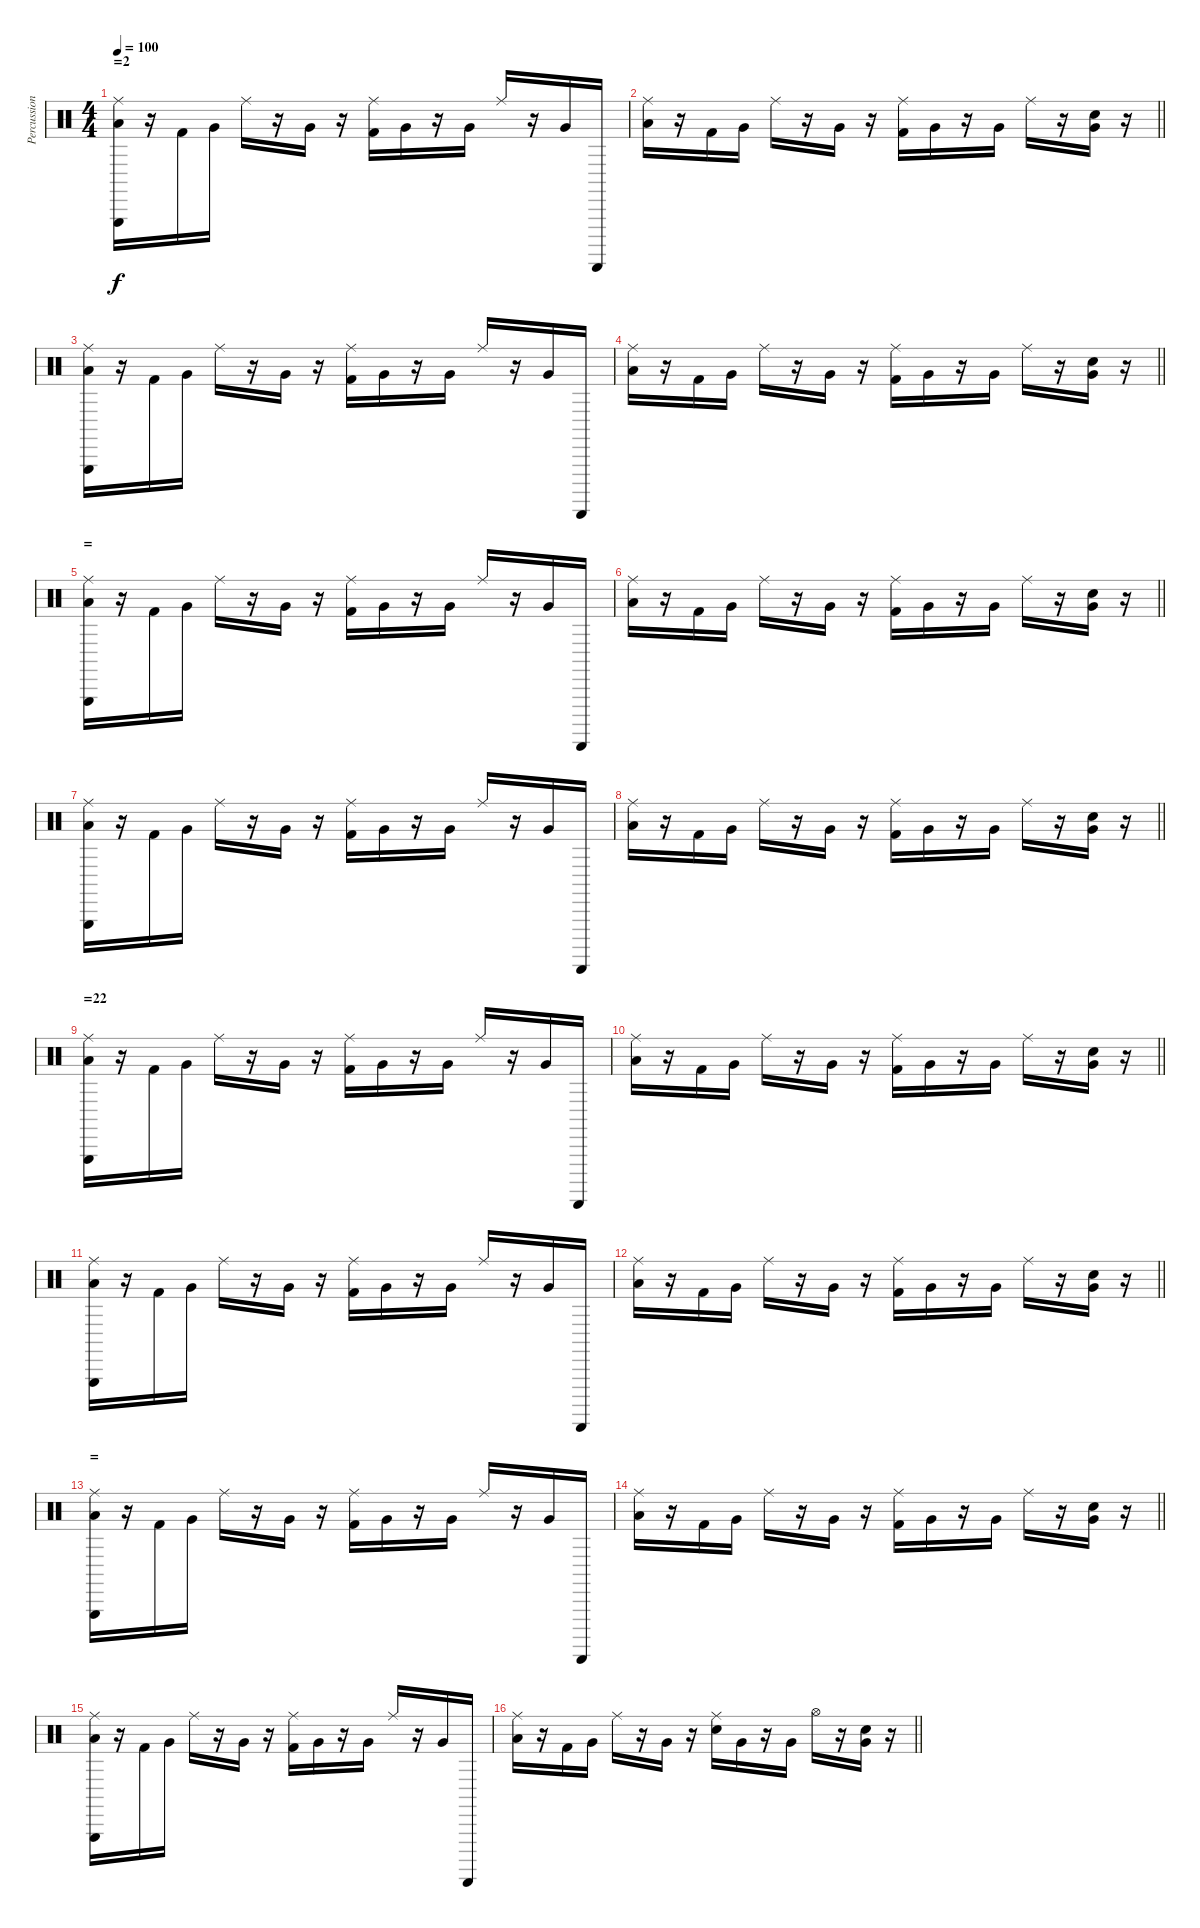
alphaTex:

\track ("Percussion" "Percussion") {instrument percussion}
\staff {score}
\articulation defaults
\ts (4 4)
\section ("" "=2")
\tempo 100
\clef neutral
\ks c
("Low Floor Tom (hit)" "Triangle (hit)" "Ride (middle)").16{dy f} r.16 "Kick (hit) 2".16 "Very Low Tom (hit)".16 "Ride (middle)".16 r.16 "Very Low Tom (hit)".16 r.16 ("Kick (hit) 2" "Ride (middle)").16 "Very Low Tom (hit)".16 r.16 "Very Low Tom (hit)".16 "Ride (middle)".16 r.16 "Very Low Tom (hit)".16 "Guiro (scrap-return)".16 |
\barLineRight lightlight
("Low Floor Tom (hit)" "Ride (middle)").16 r.16 "Kick (hit) 2".16 "Very Low Tom (hit)".16 "Ride (middle)".16 r.16 "Very Low Tom (hit)".16 r.16 ("Kick (hit) 2" "Ride (middle)").16 "Very Low Tom (hit)".16 r.16 "Very Low Tom (hit)".16 "Ride (middle)".16 r.16 ("Very Low Tom (hit)" "Electric Snare (hit)").16 r.16 |
("Low Floor Tom (hit)" "Triangle (hit)" "Ride (middle)").16 r.16 "Kick (hit) 2".16 "Very Low Tom (hit)".16 "Ride (middle)".16 r.16 "Very Low Tom (hit)".16 r.16 ("Kick (hit) 2" "Ride (middle)").16 "Very Low Tom (hit)".16 r.16 "Very Low Tom (hit)".16 "Ride (middle)".16 r.16 "Very Low Tom (hit)".16 "Guiro (scrap-return)".16 |
\barLineRight lightlight
("Low Floor Tom (hit)" "Ride (middle)").16 r.16 "Kick (hit) 2".16 "Very Low Tom (hit)".16 "Ride (middle)".16 r.16 "Very Low Tom (hit)".16 r.16 ("Kick (hit) 2" "Ride (middle)").16 "Very Low Tom (hit)".16 r.16 "Very Low Tom (hit)".16 "Ride (middle)".16 r.16 ("Very Low Tom (hit)" "Electric Snare (hit)").16 r.16 |
\section ("" "=")
("Low Floor Tom (hit)" "Triangle (hit)" "Ride (middle)").16 r.16 "Kick (hit) 2".16 "Very Low Tom (hit)".16 "Ride (middle)".16 r.16 "Very Low Tom (hit)".16 r.16 ("Kick (hit) 2" "Ride (middle)").16 "Very Low Tom (hit)".16 r.16 "Very Low Tom (hit)".16 "Ride (middle)".16 r.16 "Very Low Tom (hit)".16 "Guiro (scrap-return)".16 |
\barLineRight lightlight
("Low Floor Tom (hit)" "Ride (middle)").16 r.16 "Kick (hit) 2".16 "Very Low Tom (hit)".16 "Ride (middle)".16 r.16 "Very Low Tom (hit)".16 r.16 ("Kick (hit) 2" "Ride (middle)").16 "Very Low Tom (hit)".16 r.16 "Very Low Tom (hit)".16 "Ride (middle)".16 r.16 ("Very Low Tom (hit)" "Electric Snare (hit)").16 r.16 |
("Low Floor Tom (hit)" "Triangle (hit)" "Ride (middle)").16 r.16 "Kick (hit) 2".16 "Very Low Tom (hit)".16 "Ride (middle)".16 r.16 "Very Low Tom (hit)".16 r.16 ("Kick (hit) 2" "Ride (middle)").16 "Very Low Tom (hit)".16 r.16 "Very Low Tom (hit)".16 "Ride (middle)".16 r.16 "Very Low Tom (hit)".16 "Guiro (scrap-return)".16 |
\barLineRight lightlight
("Low Floor Tom (hit)" "Ride (middle)").16 r.16 "Kick (hit) 2".16 "Very Low Tom (hit)".16 "Ride (middle)".16 r.16 "Very Low Tom (hit)".16 r.16 ("Kick (hit) 2" "Ride (middle)").16 "Very Low Tom (hit)".16 r.16 "Very Low Tom (hit)".16 "Ride (middle)".16 r.16 ("Very Low Tom (hit)" "Electric Snare (hit)").16 r.16 |
\section ("" "=22")
("Low Floor Tom (hit)" "Triangle (hit)" "Ride (middle)").16 r.16 "Kick (hit) 2".16 "Very Low Tom (hit)".16 "Ride (middle)".16 r.16 "Very Low Tom (hit)".16 r.16 ("Kick (hit) 2" "Ride (middle)").16 "Very Low Tom (hit)".16 r.16 "Very Low Tom (hit)".16 "Ride (middle)".16 r.16 "Very Low Tom (hit)".16 "Guiro (scrap-return)".16 |
\barLineRight lightlight
("Low Floor Tom (hit)" "Ride (middle)").16 r.16 "Kick (hit) 2".16 "Very Low Tom (hit)".16 "Ride (middle)".16 r.16 "Very Low Tom (hit)".16 r.16 ("Kick (hit) 2" "Ride (middle)").16 "Very Low Tom (hit)".16 r.16 "Very Low Tom (hit)".16 "Ride (middle)".16 r.16 ("Very Low Tom (hit)" "Electric Snare (hit)").16 r.16 |
("Low Floor Tom (hit)" "Triangle (hit)" "Ride (middle)").16 r.16 "Kick (hit) 2".16 "Very Low Tom (hit)".16 "Ride (middle)".16 r.16 "Very Low Tom (hit)".16 r.16 ("Kick (hit) 2" "Ride (middle)").16 "Very Low Tom (hit)".16 r.16 "Very Low Tom (hit)".16 "Ride (middle)".16 r.16 "Very Low Tom (hit)".16 "Guiro (scrap-return)".16 |
\barLineRight lightlight
("Low Floor Tom (hit)" "Ride (middle)").16 r.16 "Kick (hit) 2".16 "Very Low Tom (hit)".16 "Ride (middle)".16 r.16 "Very Low Tom (hit)".16 r.16 ("Kick (hit) 2" "Ride (middle)").16 "Very Low Tom (hit)".16 r.16 "Very Low Tom (hit)".16 "Ride (middle)".16 r.16 ("Very Low Tom (hit)" "Electric Snare (hit)").16 r.16 |
\section ("" "=")
("Low Floor Tom (hit)" "Triangle (hit)" "Ride (middle)").16 r.16 "Kick (hit) 2".16 "Very Low Tom (hit)".16 "Ride (middle)".16 r.16 "Very Low Tom (hit)".16 r.16 ("Kick (hit) 2" "Ride (middle)").16 "Very Low Tom (hit)".16 r.16 "Very Low Tom (hit)".16 "Ride (middle)".16 r.16 "Very Low Tom (hit)".16 "Guiro (scrap-return)".16 |
\barLineRight lightlight
("Low Floor Tom (hit)" "Ride (middle)").16 r.16 "Kick (hit) 2".16 "Very Low Tom (hit)".16 "Ride (middle)".16 r.16 "Very Low Tom (hit)".16 r.16 ("Kick (hit) 2" "Ride (middle)").16 "Very Low Tom (hit)".16 r.16 "Very Low Tom (hit)".16 "Ride (middle)".16 r.16 ("Very Low Tom (hit)" "Electric Snare (hit)").16 r.16 |
("Low Floor Tom (hit)" "Triangle (hit)" "Ride (middle)").16 r.16 "Kick (hit) 2".16 "Very Low Tom (hit)".16 "Ride (middle)".16 r.16 "Very Low Tom (hit)".16 r.16 ("Kick (hit) 2" "Ride (middle)").16 "Very Low Tom (hit)".16 r.16 "Very Low Tom (hit)".16 "Ride (middle)".16 r.16 "Very Low Tom (hit)".16 "Guiro (scrap-return)".16 |
\barLineRight lightlight
("Low Floor Tom (hit)" "Ride (middle)").16 r.16 "Kick (hit) 2".16 "Very Low Tom (hit)".16 "Ride (middle)".16 r.16 "Very Low Tom (hit)".16 r.16 ("Electric Snare (hit)" "Ride (middle)").16 "Very Low Tom (hit)".16 r.16 "Very Low Tom (hit)".16 "Hi-Hat (open)".16 r.16 ("Very Low Tom (hit)" "Electric Snare (hit)").16 r.16
